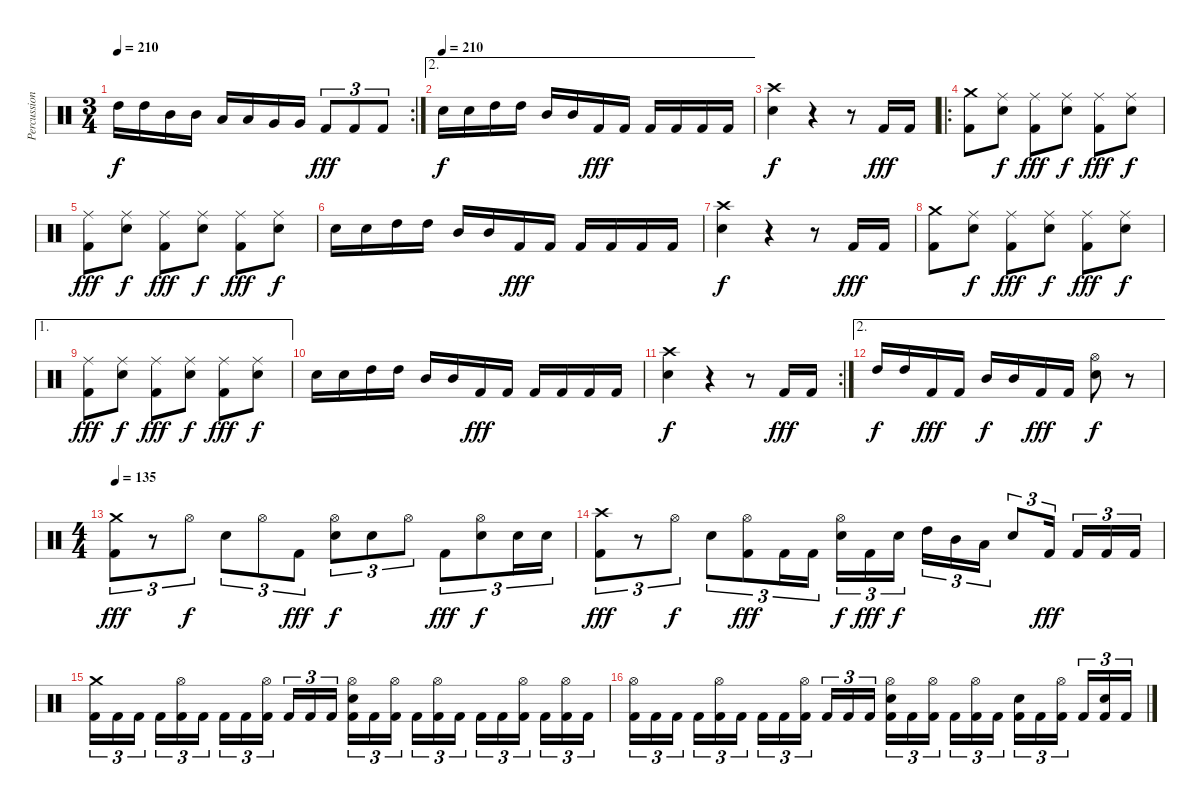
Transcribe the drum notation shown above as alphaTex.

\track ("Percussions" "Percussion") {instrument percussion}
\staff {score}
\articulation defaults
\rc 2
\ts (3 4)
\tempo 210
\clef neutral
\ks c "High Tom (hit)".16{dy f} "High Tom (hit)".16 "Mid Tom (hit)".16 "Mid Tom (hit)".16 "Low Tom (hit)".16 "Low Tom (hit)".16 "Very Low Tom (hit)".16 "Very Low Tom (hit)".16 "Kick (hit) 2".8{tu (3 2) dy fff} "Kick (hit) 2".8{tu (3 2)} "Kick (hit) 2".8{tu (3 2)}
|
\ae 2
\tempo (210)
"Electric Snare (hit)".16{dy f} "Electric Snare (hit)".16 "High Tom (hit)".16 "High Tom (hit)".16 "Mid Tom (hit)".16 "Mid Tom (hit)".16 "Kick (hit) 2".16{dy fff} "Kick (hit) 2".16 "Kick (hit) 2".16 "Kick (hit) 2".16 "Kick (hit) 2".16 "Kick (hit) 2".16 |
("Crash high (hit)" "Electric Snare (hit)").4{dy f} r.4 r.8 "Kick (hit) 2".16{dy fff} "Kick (hit) 2".16 |
\ro
("Crash medium (hit)" "Kick (hit) 2").8 ("Ride (middle)" "Electric Snare (hit)").8{dy f} ("Ride (middle)" "Kick (hit) 2").8{dy fff} ("Ride (middle)" "Electric Snare (hit)").8{dy f} ("Ride (middle)" "Kick (hit) 2").8{dy fff} ("Ride (middle)" "Electric Snare (hit)").8{dy f} |
("Ride (middle)" "Kick (hit) 2").8{dy fff} ("Ride (middle)" "Electric Snare (hit)").8{dy f} ("Ride (middle)" "Kick (hit) 2").8{dy fff} ("Ride (middle)" "Electric Snare (hit)").8{dy f} ("Ride (middle)" "Kick (hit) 2").8{dy fff} ("Ride (middle)" "Electric Snare (hit)").8{dy f} |
"Electric Snare (hit)".16 "Electric Snare (hit)".16 "High Tom (hit)".16 "High Tom (hit)".16 "Mid Tom (hit)".16 "Mid Tom (hit)".16 "Kick (hit) 2".16{dy fff} "Kick (hit) 2".16 "Kick (hit) 2".16 "Kick (hit) 2".16 "Kick (hit) 2".16 "Kick (hit) 2".16 |
("Crash high (hit)" "Electric Snare (hit)").4{dy f} r.4 r.8 "Kick (hit) 2".16{dy fff} "Kick (hit) 2".16 |
("Crash medium (hit)" "Kick (hit) 2").8 ("Ride (middle)" "Electric Snare (hit)").8{dy f} ("Ride (middle)" "Kick (hit) 2").8{dy fff} ("Ride (middle)" "Electric Snare (hit)").8{dy f} ("Ride (middle)" "Kick (hit) 2").8{dy fff} ("Ride (middle)" "Electric Snare (hit)").8{dy f} |
\ae 1
("Ride (middle)" "Kick (hit) 2").8{dy fff} ("Ride (middle)" "Electric Snare (hit)").8{dy f} ("Ride (middle)" "Kick (hit) 2").8{dy fff} ("Ride (middle)" "Electric Snare (hit)").8{dy f} ("Ride (middle)" "Kick (hit) 2").8{dy fff} ("Ride (middle)" "Electric Snare (hit)").8{dy f} |
"Electric Snare (hit)".16 "Electric Snare (hit)".16 "High Tom (hit)".16 "High Tom (hit)".16 "Mid Tom (hit)".16 "Mid Tom (hit)".16 "Kick (hit) 2".16{dy fff} "Kick (hit) 2".16 "Kick (hit) 2".16 "Kick (hit) 2".16 "Kick (hit) 2".16 "Kick (hit) 2".16 |
\rc 2
("Crash high (hit)" "Electric Snare (hit)").4{dy f} r.4 r.8 "Kick (hit) 2".16{dy fff} "Kick (hit) 2".16 |
\ae 2 "High Tom (hit)".16{dy f} "High Tom (hit)".16 "Kick (hit) 2".16{dy fff} "Kick (hit) 2".16 "Mid Tom (hit)".16{dy f} "Mid Tom (hit)".16 "Kick (hit) 2".16{dy fff} "Kick (hit) 2".16
("Hi-Hat (open)" "Electric Snare (hit)").8{dy f} r.8 |
\ts (4 4)
\tempo 135
("Crash medium (hit)" "Kick (hit) 2").8{tu (3 2) dy fff} r.8{tu (3 2)} "Hi-Hat (open)".8{tu (3 2) dy f} "Electric Snare (hit)".8{tu (3 2)} "Hi-Hat (open)".8{tu (3 2)} "Kick (hit) 2".8{tu (3 2) dy fff} ("Hi-Hat (open)" "Electric Snare (hit)").8{tu (3 2) dy f} "Electric Snare (hit)".8{tu (3 2)} "Hi-Hat (open)".8{tu (3 2)} "Kick (hit) 2".8{tu (3 2) dy fff} ("Hi-Hat (open)" "Electric Snare (hit)").8{tu (3 2) dy f} "Electric Snare (hit)".16{tu (3 2)} "Electric Snare (hit)".16{tu (3 2)} |
("Crash high (hit)" "Kick (hit) 2").8{tu (3 2) dy fff} r.8{tu (3 2)} "Hi-Hat (open)".8{tu (3 2) dy f} "Electric Snare (hit)".8{tu (3 2)} ("Hi-Hat (open)" "Kick (hit) 2").8{tu (3 2) dy fff} "Kick (hit) 2".16{tu (3 2)} "Kick (hit) 2".16{tu (3 2)} ("Hi-Hat (open)" "Electric Snare (hit)").16{tu (3 2) dy f} "Kick (hit) 2".16{tu (3 2) dy fff} "Electric Snare (hit)".16{tu (3 2) dy f beam splitsecondary} "High Tom (hit)".16{tu (3 2)} "Mid Tom (hit)".16{tu (3 2)} "Low Tom (hit)".16{tu (3 2)} "Electric Snare (hit)".8{tu (3 2)} "Kick (hit) 2".16{tu (3 2) dy fff beam splitsecondary} "Kick (hit) 2".16{tu (3 2)} "Kick (hit) 2".16{tu (3 2)} "Kick (hit) 2".16{tu (3 2)} |
("Crash medium (hit)" "Kick (hit) 2").16{tu (3 2)} "Kick (hit) 2".16{tu (3 2)} "Kick (hit) 2".16{tu (3 2) beam splitsecondary} "Kick (hit) 2".16{tu (3 2)} ("Hi-Hat (open)" "Kick (hit) 2").16{tu (3 2)} "Kick (hit) 2".16{tu (3 2)} "Kick (hit) 2".16{tu (3 2)} "Kick (hit) 2".16{tu (3 2)} ("Hi-Hat (open)" "Kick (hit) 2").16{tu (3 2) beam splitsecondary} "Kick (hit) 2".16{tu (3 2)} "Kick (hit) 2".16{tu (3 2)} "Kick (hit) 2".16{tu (3 2)} ("Hi-Hat (open)" "Electric Snare (hit)" "Kick (hit) 2").16{tu (3 2)} "Kick (hit) 2".16{tu (3 2)} ("Hi-Hat (open)" "Kick (hit) 2").16{tu (3 2) beam splitsecondary} "Kick (hit) 2".16{tu (3 2)} ("Hi-Hat (open)" "Kick (hit) 2").16{tu (3 2)} "Kick (hit) 2".16{tu (3 2)} "Kick (hit) 2".16{tu (3 2)} "Kick (hit) 2".16{tu (3 2)} ("Hi-Hat (open)" "Kick (hit) 2").16{tu (3 2) beam splitsecondary} "Kick (hit) 2".16{tu (3 2)} ("Hi-Hat (open)" "Kick (hit) 2").16{tu (3 2)} "Kick (hit) 2".16{tu (3 2)} |
("Hi-Hat (open)" "Kick (hit) 2").16{tu (3 2)} "Kick (hit) 2".16{tu (3 2)} "Kick (hit) 2".16{tu (3 2) beam splitsecondary} "Kick (hit) 2".16{tu (3 2)} ("Hi-Hat (open)" "Kick (hit) 2").16{tu (3 2)} "Kick (hit) 2".16{tu (3 2)} "Kick (hit) 2".16{tu (3 2)} "Kick (hit) 2".16{tu (3 2)} ("Hi-Hat (open)" "Kick (hit) 2").16{tu (3 2) beam splitsecondary} "Kick (hit) 2".16{tu (3 2)} "Kick (hit) 2".16{tu (3 2)} "Kick (hit) 2".16{tu (3 2)} ("Hi-Hat (open)" "Electric Snare (hit)" "Kick (hit) 2").16{tu (3 2)} "Kick (hit) 2".16{tu (3 2)} ("Hi-Hat (open)" "Kick (hit) 2").16{tu (3 2) beam splitsecondary} "Kick (hit) 2".16{tu (3 2)} ("Hi-Hat (open)" "Kick (hit) 2").16{tu (3 2)} "Kick (hit) 2".16{tu (3 2)} ("Electric Snare (hit)" "Kick (hit) 2").16{tu (3 2)} "Kick (hit) 2".16{tu (3 2)} ("Hi-Hat (open)" "Kick (hit) 2").16{tu (3 2) beam splitsecondary} "Kick (hit) 2".16{tu (3 2)} ("Electric Snare (hit)" "Kick (hit) 2").16{tu (3 2)} "Kick (hit) 2".16{tu (3 2)}
